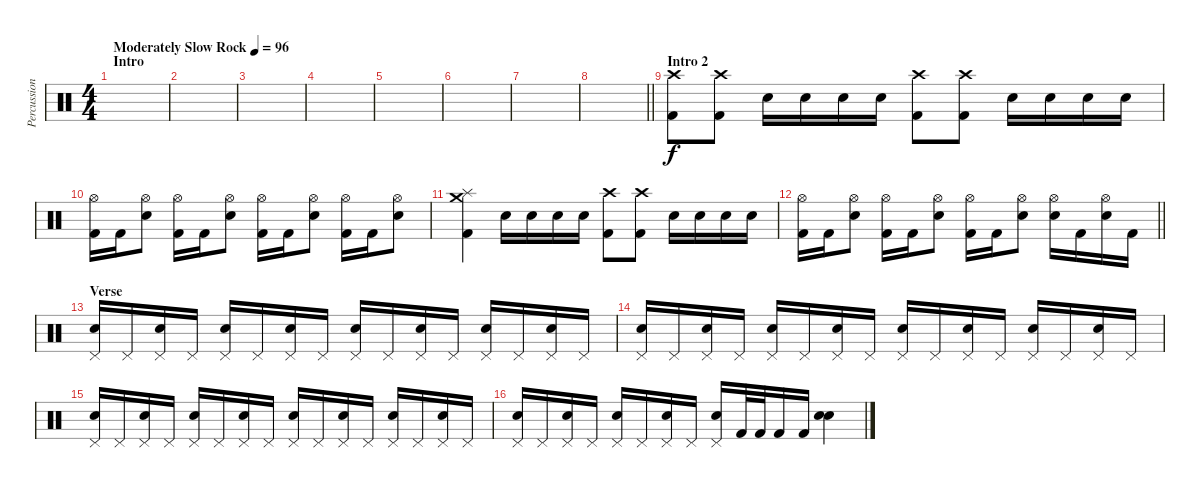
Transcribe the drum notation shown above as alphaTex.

\track ("Percussion" "Percussion") {instrument percussion}
\staff {score}
\articulation defaults
\ts (4 4)
\section ("" "Intro")
\tempo (96 "Moderately Slow Rock")
\clef neutral
\ks c
|
|
|
|
|
|
|
\barLineRight lightlight
|
\section ("" "Intro 2")
("Crash high (hit)" "Kick (hit) 2").8 ("Crash high (hit)" "Kick (hit) 2").8 "Electric Snare (hit)".16 "Electric Snare (hit)".16 "Electric Snare (hit)".16 "Electric Snare (hit)".16 ("Crash high (hit)" "Kick (hit) 2").8 ("Crash high (hit)" "Kick (hit) 2").8 "Electric Snare (hit)".16 "Electric Snare (hit)".16 "Electric Snare (hit)".16 "Electric Snare (hit)".16 |
("Hi-Hat (open)" "Kick (hit) 2").16 "Kick (hit) 2".16 ("Hi-Hat (open)" "Electric Snare (hit)").8 ("Hi-Hat (open)" "Kick (hit) 2").16 "Kick (hit) 2".16 ("Hi-Hat (open)" "Electric Snare (hit)").8 ("Hi-Hat (open)" "Kick (hit) 2").16 "Kick (hit) 2".16 ("Hi-Hat (open)" "Electric Snare (hit)").8 ("Hi-Hat (open)" "Kick (hit) 2").16 "Kick (hit) 2".16 ("Hi-Hat (open)" "Electric Snare (hit)").8 |
("Kick (hit) 2" "Crash medium (hit)" "Splash (hit)").4 "Electric Snare (hit)".16 "Electric Snare (hit)".16 "Electric Snare (hit)".16 "Electric Snare (hit)".16 ("Crash high (hit)" "Kick (hit) 2").8 ("Crash high (hit)" "Kick (hit) 2").8 "Electric Snare (hit)".16 "Electric Snare (hit)".16 "Electric Snare (hit)".16 "Electric Snare (hit)".16 |
\barLineRight lightlight
("Hi-Hat (open)" "Kick (hit) 2").16 "Kick (hit) 2".16 ("Hi-Hat (open)" "Electric Snare (hit)").8 ("Hi-Hat (open)" "Kick (hit) 2").16 "Kick (hit) 2".16 ("Hi-Hat (open)" "Electric Snare (hit)").8 ("Hi-Hat (open)" "Kick (hit) 2").16 "Kick (hit) 2".16 ("Hi-Hat (open)" "Electric Snare (hit)").8 ("Hi-Hat (open)" "Electric Snare (hit)").16 "Kick (hit) 2".16 ("Hi-Hat (open)" "Electric Snare (hit)").16 "Kick (hit) 2".16 |
\section ("" "Verse")
("Pedal Hi-Hat (hit)" "Electric Snare (hit)").16 "Pedal Hi-Hat (hit)".16 ("Pedal Hi-Hat (hit)" "Electric Snare (hit)").16 "Pedal Hi-Hat (hit)".16 ("Pedal Hi-Hat (hit)" "Electric Snare (hit)").16 "Pedal Hi-Hat (hit)".16 ("Pedal Hi-Hat (hit)" "Electric Snare (hit)").16 "Pedal Hi-Hat (hit)".16 ("Pedal Hi-Hat (hit)" "Electric Snare (hit)").16 "Pedal Hi-Hat (hit)".16 ("Pedal Hi-Hat (hit)" "Electric Snare (hit)").16 "Pedal Hi-Hat (hit)".16 ("Pedal Hi-Hat (hit)" "Electric Snare (hit)").16 "Pedal Hi-Hat (hit)".16 ("Pedal Hi-Hat (hit)" "Electric Snare (hit)").16 "Pedal Hi-Hat (hit)".16 |
("Pedal Hi-Hat (hit)" "Electric Snare (hit)").16 "Pedal Hi-Hat (hit)".16 ("Pedal Hi-Hat (hit)" "Electric Snare (hit)").16 "Pedal Hi-Hat (hit)".16 ("Pedal Hi-Hat (hit)" "Electric Snare (hit)").16 "Pedal Hi-Hat (hit)".16 ("Pedal Hi-Hat (hit)" "Electric Snare (hit)").16 "Pedal Hi-Hat (hit)".16 ("Pedal Hi-Hat (hit)" "Electric Snare (hit)").16 "Pedal Hi-Hat (hit)".16 ("Pedal Hi-Hat (hit)" "Electric Snare (hit)").16 "Pedal Hi-Hat (hit)".16 ("Pedal Hi-Hat (hit)" "Electric Snare (hit)").16 "Pedal Hi-Hat (hit)".16 ("Pedal Hi-Hat (hit)" "Electric Snare (hit)").16 "Pedal Hi-Hat (hit)".16 |
("Pedal Hi-Hat (hit)" "Electric Snare (hit)").16 "Pedal Hi-Hat (hit)".16 ("Pedal Hi-Hat (hit)" "Electric Snare (hit)").16 "Pedal Hi-Hat (hit)".16 ("Pedal Hi-Hat (hit)" "Electric Snare (hit)").16 "Pedal Hi-Hat (hit)".16 ("Pedal Hi-Hat (hit)" "Electric Snare (hit)").16 "Pedal Hi-Hat (hit)".16 ("Pedal Hi-Hat (hit)" "Electric Snare (hit)").16 "Pedal Hi-Hat (hit)".16 ("Pedal Hi-Hat (hit)" "Electric Snare (hit)").16 "Pedal Hi-Hat (hit)".16 ("Pedal Hi-Hat (hit)" "Electric Snare (hit)").16 "Pedal Hi-Hat (hit)".16 ("Pedal Hi-Hat (hit)" "Electric Snare (hit)").16 "Pedal Hi-Hat (hit)".16 |
("Pedal Hi-Hat (hit)" "Electric Snare (hit)").16 "Pedal Hi-Hat (hit)".16 ("Pedal Hi-Hat (hit)" "Electric Snare (hit)").16 "Pedal Hi-Hat (hit)".16 ("Pedal Hi-Hat (hit)" "Electric Snare (hit)").16 "Pedal Hi-Hat (hit)".16 ("Pedal Hi-Hat (hit)" "Electric Snare (hit)").16 "Pedal Hi-Hat (hit)".16 ("Pedal Hi-Hat (hit)" "Electric Snare (hit)").16 "Kick (hit) 2".32 "Kick (hit) 2".32 "Kick (hit) 2".16 "Kick (hit) 2".16 ("Electric Snare (hit)" "Electric Snare (hit)").4
